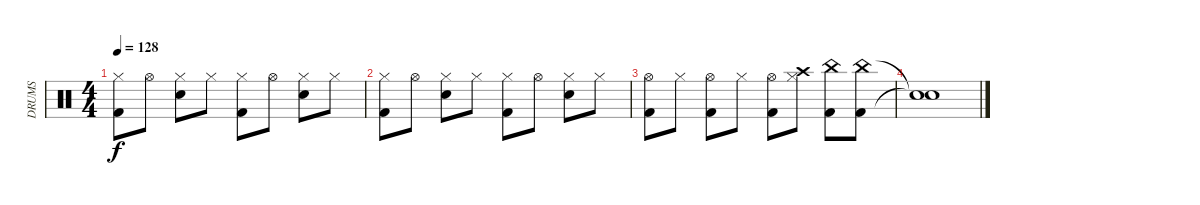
\track ("DRUMS" "DRUMS") {instrument percussion}
\staff {score}
\articulation defaults
\ts (4 4)
\tempo 128
\clef neutral
\ks c
("Kick (hit) 2" "Hi-Hat (closed)").8{dy f} "Hi-Hat (open)".8 ("Electric Snare (hit)" "Hi-Hat (closed)").8 "Hi-Hat (closed)".8 ("Kick (hit) 2" "Hi-Hat (closed)").8 "Hi-Hat (open)".8 ("Electric Snare (hit)" "Hi-Hat (closed)").8 "Hi-Hat (closed)".8 |
("Kick (hit) 2" "Hi-Hat (closed)").8 "Hi-Hat (open)".8 ("Electric Snare (hit)" "Hi-Hat (closed)").8 "Hi-Hat (closed)".8 ("Kick (hit) 2" "Hi-Hat (closed)").8 "Hi-Hat (open)".8 ("Electric Snare (hit)" "Hi-Hat (closed)").8 "Hi-Hat (closed)".8 |
("Kick (hit) 2" "Hi-Hat (open)").8 "Hi-Hat (closed)".8 ("Kick (hit) 2" "Hi-Hat (open)").8 "Hi-Hat (closed)".8 ("Kick (hit) 2" "Hi-Hat (open)").8 ("Hi-Hat (closed)" "Crash high (hit)").8 ("Kick (hit) 2" "China (hit)").8 ("Kick (hit) 2" "China (hit)").8 |
("Snare (hit)"{t} "Snare (hit)"{t}).1
